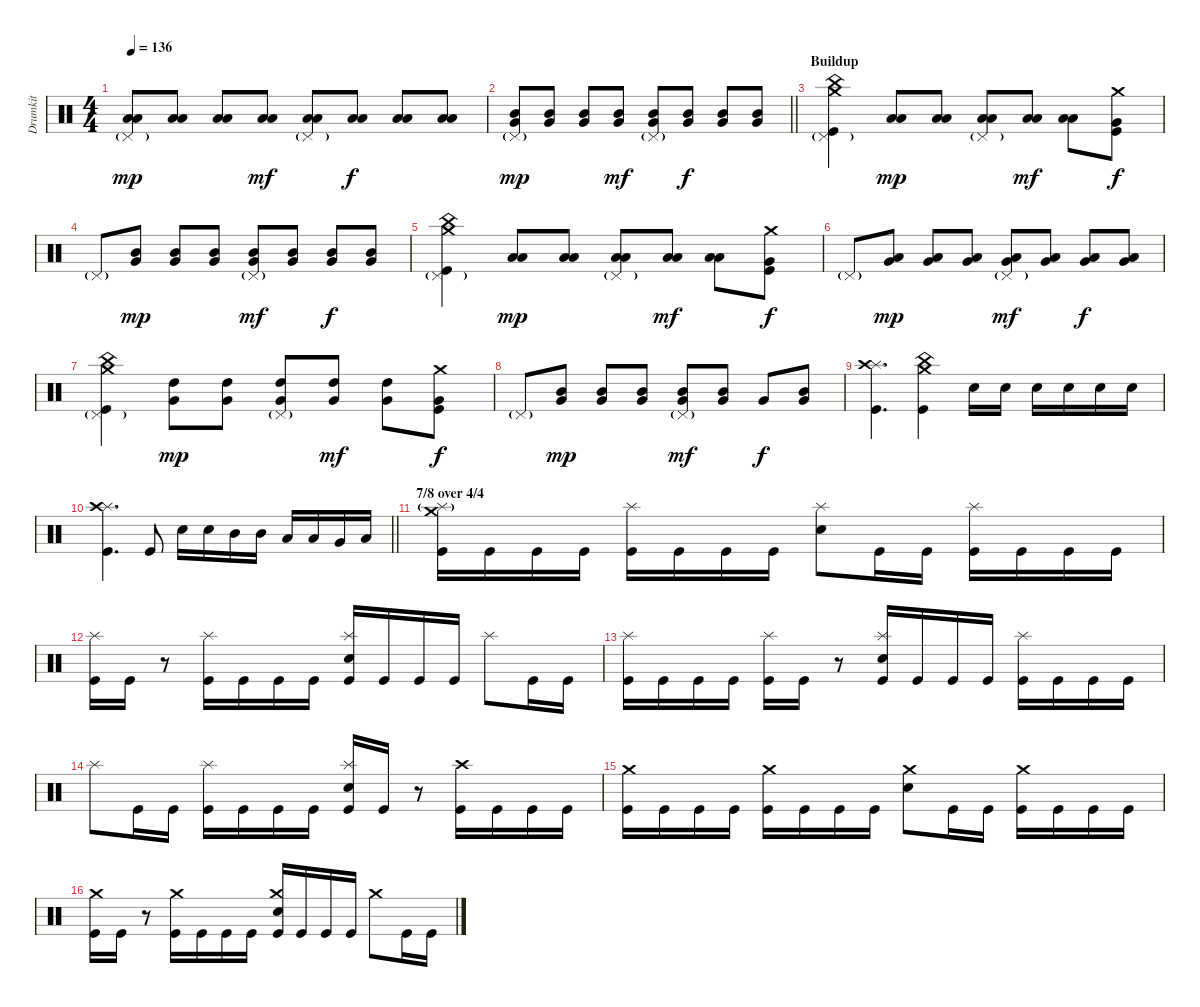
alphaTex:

\track ("Drumkit" "Drumkit") {instrument percussion}
\staff {score}
\articulation defaults
\ts (4 4)
\tempo 136
\clef neutral
\ks c
("Pedal Hi-Hat (hit)"{g} "Low Floor Tom (hit)" "Low Tom (hit)").8{dy mp} ("Low Floor Tom (hit)" "Low Tom (hit)").8 ("Low Floor Tom (hit)" "Low Tom (hit)").8 ("Low Floor Tom (hit)" "Low Tom (hit)").8{dy mf} ("Low Floor Tom (hit)" "Pedal Hi-Hat (hit)"{g} "Low Tom (hit)").8 ("Low Floor Tom (hit)" "Low Tom (hit)").8{dy f} ("Low Floor Tom (hit)" "Low Tom (hit)").8 ("Low Floor Tom (hit)" "Low Tom (hit)").8 |
\barLineRight lightlight
("Pedal Hi-Hat (hit)"{g} "Very Low Tom (hit)" "Mid Tom (hit)").8{dy mp} ("Very Low Tom (hit)" "Mid Tom (hit)").8 ("Very Low Tom (hit)" "Mid Tom (hit)").8 ("Very Low Tom (hit)" "Mid Tom (hit)").8{dy mf} ("Very Low Tom (hit)" "Pedal Hi-Hat (hit)"{g} "Mid Tom (hit)").8 ("Very Low Tom (hit)" "Mid Tom (hit)").8{dy f} ("Very Low Tom (hit)" "Mid Tom (hit)").8 ("Very Low Tom (hit)" "Mid Tom (hit)").8 |
\section ("" "Buildup")
("Kick (hit)" "China (hit)" "Crash medium (hit)" "Pedal Hi-Hat (hit)"{g}).4 ("Low Floor Tom (hit)" "Low Tom (hit)").8{dy mp} ("Low Floor Tom (hit)" "Low Tom (hit)").8 ("Low Floor Tom (hit)" "Low Tom (hit)" "Pedal Hi-Hat (hit)"{g}).8 ("Low Floor Tom (hit)" "Low Tom (hit)").8{dy mf} ("Low Floor Tom (hit)" "Low Tom (hit)").8 ("Kick (hit)" "Crash medium (hit)" "Very Low Tom (hit)").8{dy f} |
"Pedal Hi-Hat (hit)"{g}.8 ("Very Low Tom (hit)" "Mid Tom (hit)").8{dy mp} ("Very Low Tom (hit)" "Mid Tom (hit)").8 ("Very Low Tom (hit)" "Mid Tom (hit)").8 ("Very Low Tom (hit)" "Mid Tom (hit)" "Pedal Hi-Hat (hit)"{g}).8{dy mf} ("Very Low Tom (hit)" "Mid Tom (hit)").8 ("Very Low Tom (hit)" "Mid Tom (hit)").8{dy f} ("Very Low Tom (hit)" "Mid Tom (hit)").8 |
("Kick (hit)" "China (hit)" "Crash medium (hit)" "Pedal Hi-Hat (hit)"{g}).4 ("Low Floor Tom (hit)" "Low Tom (hit)").8{dy mp} ("Low Floor Tom (hit)" "Low Tom (hit)").8 ("Low Floor Tom (hit)" "Low Tom (hit)" "Pedal Hi-Hat (hit)"{g}).8 ("Low Floor Tom (hit)" "Low Tom (hit)").8{dy mf} ("Low Floor Tom (hit)" "Low Tom (hit)").8 ("Kick (hit)" "Crash medium (hit)" "Very Low Tom (hit)").8{dy f} |
"Pedal Hi-Hat (hit)"{g}.8 ("Low Floor Tom (hit)" "Very Low Tom (hit)").8{dy mp} ("Very Low Tom (hit)" "Low Floor Tom (hit)").8 ("Very Low Tom (hit)" "Low Floor Tom (hit)").8 ("Very Low Tom (hit)" "Pedal Hi-Hat (hit)"{g} "Low Floor Tom (hit)").8{dy mf} ("Very Low Tom (hit)" "Low Floor Tom (hit)").8 ("Very Low Tom (hit)" "Low Floor Tom (hit)").8{dy f} ("Very Low Tom (hit)" "Low Floor Tom (hit)").8 |
("Kick (hit)" "China (hit)" "Crash medium (hit)" "Pedal Hi-Hat (hit)"{g}).4 ("Very Low Tom (hit)" "High Tom (hit)").8{dy mp} ("High Tom (hit)" "Very Low Tom (hit)").8 ("Pedal Hi-Hat (hit)"{g} "High Tom (hit)" "Very Low Tom (hit)").8 ("High Tom (hit)" "Very Low Tom (hit)").8{dy mf} ("High Tom (hit)" "Very Low Tom (hit)").8 ("Kick (hit)" "Crash medium (hit)" "Very Low Tom (hit)").8{dy f} |
"Pedal Hi-Hat (hit)"{g}.8 ("Mid Tom (hit)" "Very Low Tom (hit)").8{dy mp} ("Very Low Tom (hit)" "Mid Tom (hit)").8 ("Very Low Tom (hit)" "Mid Tom (hit)").8 ("Very Low Tom (hit)" "Pedal Hi-Hat (hit)"{g} "Mid Tom (hit)").8{dy mf} ("Very Low Tom (hit)" "Mid Tom (hit)").8 "Very Low Tom (hit)".8{dy f} ("Very Low Tom (hit)" "Mid Tom (hit)").8 |
("Splash (hit)" "Crash high (hit)" "Kick (hit)").4{d} ("Kick (hit)" "China (hit)" "Crash medium (hit)").4 "Snare (hit) 2".16 "Snare (hit) 2".16 "Snare (hit) 2".16 "Snare (hit) 2".16 "Snare (hit) 2".16 "Snare (hit) 2".16 |
\barLineRight lightlight
("Splash (hit)" "Crash high (hit)" "Kick (hit)").4{d} "Kick (hit)".8 "Snare (hit) 2".16 "Snare (hit) 2".16 "Mid Tom (hit)".16 "Mid Tom (hit)".16 "Low Tom (hit)".16 "Low Tom (hit)".16 "Very Low Tom (hit)".16 "Low Floor Tom (hit)".16 |
\section ("" "7/8 over 4/4")
("Crash medium (hit)" "Kick (hit)" "Splash (hit)"{g}).16 "Kick (hit)".16 "Kick (hit)".16 "Kick (hit)".16 ("Kick (hit)" "Splash (hit)").16 "Kick (hit)".16 "Kick (hit)".16 "Kick (hit)".16 ("Snare (hit) 2" "Splash (hit)").8 "Kick (hit)".16 "Kick (hit)".16 ("Kick (hit)" "Splash (hit)").16 "Kick (hit)".16 "Kick (hit)".16 "Kick (hit)".16 |
("Splash (hit)" "Kick (hit)").16 "Kick (hit)".16 r.8 ("Splash (hit)" "Kick (hit)").16 "Kick (hit)".16 "Kick (hit)".16 "Kick (hit)".16 ("Kick (hit)" "Snare (hit) 2" "Splash (hit)").16 "Kick (hit)".16 "Kick (hit)".16 "Kick (hit)".16 "Splash (hit)".8 "Kick (hit)".16 "Kick (hit)".16 |
("Kick (hit)" "Splash (hit)").16 "Kick (hit)".16 "Kick (hit)".16 "Kick (hit)".16 ("Kick (hit)" "Splash (hit)").16 "Kick (hit)".16 r.8 ("Kick (hit)" "Splash (hit)" "Snare (hit) 2").16 "Kick (hit)".16 "Kick (hit)".16 "Kick (hit)".16 ("Kick (hit)" "Splash (hit)").16 "Kick (hit)".16 "Kick (hit)".16 "Kick (hit)".16 |
"Splash (hit)".8 "Kick (hit)".16 "Kick (hit)".16 ("Kick (hit)" "Splash (hit)").16 "Kick (hit)".16 "Kick (hit)".16 "Kick (hit)".16 ("Kick (hit)" "Splash (hit)" "Snare (hit) 2").16 "Kick (hit)".16 r.8 ("Kick (hit)" "Crash high (hit)").16 "Kick (hit)".16 "Kick (hit)".16 "Kick (hit)".16 |
("Kick (hit)" "Crash medium (hit)").16 "Kick (hit)".16 "Kick (hit)".16 "Kick (hit)".16 ("Kick (hit)" "Crash medium (hit)").16 "Kick (hit)".16 "Kick (hit)".16 "Kick (hit)".16 ("Crash medium (hit)" "Snare (hit) 2").8 "Kick (hit)".16 "Kick (hit)".16 ("Kick (hit)" "Crash medium (hit)").16 "Kick (hit)".16 "Kick (hit)".16 "Kick (hit)".16 |
("Kick (hit)" "Crash medium (hit)").16 "Kick (hit)".16 r.8 ("Kick (hit)" "Crash medium (hit)").16 "Kick (hit)".16 "Kick (hit)".16 "Kick (hit)".16 ("Kick (hit)" "Crash medium (hit)" "Snare (hit) 2").16 "Kick (hit)".16 "Kick (hit)".16 "Kick (hit)".16 "Crash medium (hit)".8 "Kick (hit)".16 "Kick (hit)".16
